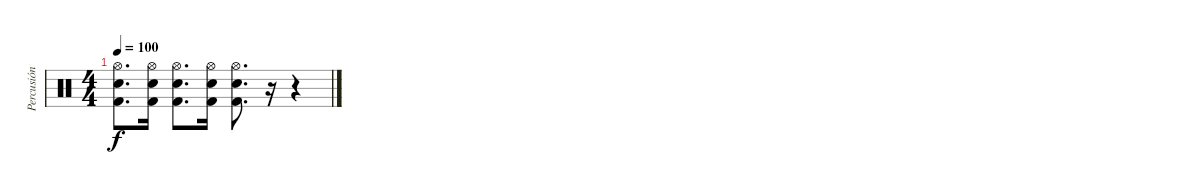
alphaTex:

\track ("Percusión" "Percusión") {instrument percussion}
\staff {score}
\articulation defaults
\ts (4 4)
\tempo 100
\clef neutral
\ks c
("Hi-Hat (open)" "Snare (hit) 2" "Kick (hit) 2").8{d dy f} ("Hi-Hat (open)" "Snare (hit) 2" "Kick (hit) 2").16 ("Hi-Hat (open)" "Snare (hit) 2" "Kick (hit) 2").8{d} ("Hi-Hat (open)" "Snare (hit) 2" "Kick (hit) 2").16 ("Hi-Hat (open)" "Snare (hit) 2" "Kick (hit) 2").8{d} r.16 r.4
